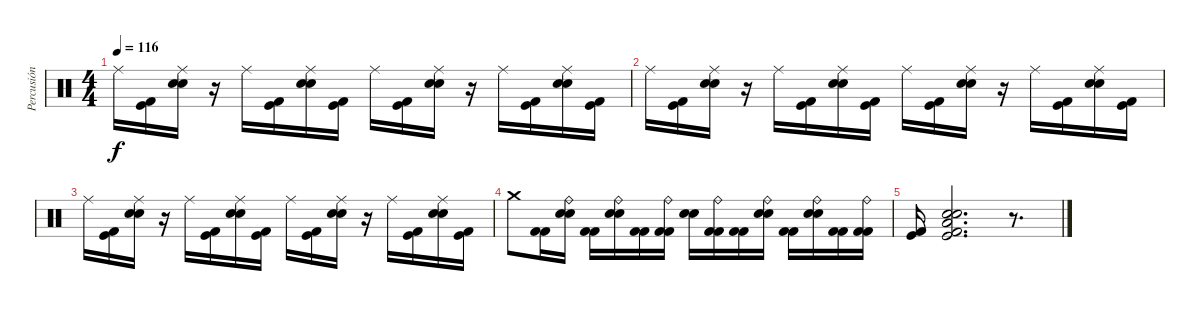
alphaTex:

\track ("Percusión" "Percusión") {instrument percussion}
\staff {score}
\articulation defaults
\ts (4 4)
\tempo 116
\clef neutral
\ks c "Ride (middle)".16{dy f}
("Kick (hit)" "Kick (hit) 2").16 ("Ride (middle)" "Electric Snare (hit)" "Snare (hit) 2").16 r.16 "Ride (middle)".16 ("Kick (hit)" "Kick (hit) 2").16 ("Ride (middle)" "Electric Snare (hit)" "Snare (hit) 2").16 ("Kick (hit)" "Kick (hit) 2").16 "Ride (middle)".16 ("Kick (hit)" "Kick (hit) 2").16 ("Ride (middle)" "Electric Snare (hit)" "Snare (hit) 2").16 r.16 "Ride (middle)".16 ("Kick (hit)" "Kick (hit) 2").16 ("Ride (middle)" "Electric Snare (hit)" "Snare (hit) 2").16 ("Kick (hit)" "Kick (hit) 2").16 |
"Ride (middle)".16 ("Kick (hit)" "Kick (hit) 2").16 ("Ride (middle)" "Electric Snare (hit)" "Snare (hit) 2").16 r.16 "Ride (middle)".16 ("Kick (hit)" "Kick (hit) 2").16 ("Ride (middle)" "Electric Snare (hit)" "Snare (hit) 2").16 ("Kick (hit)" "Kick (hit) 2").16 "Ride (middle)".16 ("Kick (hit)" "Kick (hit) 2").16 ("Ride (middle)" "Electric Snare (hit)" "Snare (hit) 2").16 r.16 "Ride (middle)".16 ("Kick (hit)" "Kick (hit) 2").16 ("Ride (middle)" "Electric Snare (hit)" "Snare (hit) 2").16 ("Kick (hit)" "Kick (hit) 2").16 |
"Ride (middle)".16 ("Kick (hit)" "Kick (hit) 2").16 ("Ride (middle)" "Electric Snare (hit)" "Snare (hit) 2").16 r.16 "Ride (middle)".16 ("Kick (hit)" "Kick (hit) 2").16 ("Ride (middle)" "Electric Snare (hit)" "Snare (hit) 2").16 ("Kick (hit)" "Kick (hit) 2").16 "Ride (middle)".16 ("Kick (hit)" "Kick (hit) 2").16 ("Ride (middle)" "Electric Snare (hit)" "Snare (hit) 2").16 r.16 "Ride (middle)".16 ("Kick (hit)" "Kick (hit) 2").16 ("Ride (middle)" "Electric Snare (hit)" "Snare (hit) 2").16 ("Kick (hit)" "Kick (hit) 2").16 |
"Crash medium (hit)".8 ("Kick (hit) 2" "Kick (hit) 2").16 ("Ride (bell)" "Snare (hit) 2" "Electric Snare (hit)").16 ("Kick (hit) 2" "Kick (hit) 2").16 ("Ride (bell)" "Snare (hit) 2" "Electric Snare (hit)").16 ("Kick (hit) 2" "Kick (hit) 2").16 ("Ride (bell)" "Kick (hit) 2" "Kick (hit) 2").16 ("Snare (hit) 2" "Electric Snare (hit)").16 ("Ride (bell)" "Kick (hit) 2" "Kick (hit) 2").16 ("Kick (hit) 2" "Kick (hit) 2").16 ("Ride (bell)" "Snare (hit) 2" "Electric Snare (hit)").16 ("Kick (hit) 2" "Kick (hit) 2").16 ("Ride (bell)" "Snare (hit) 2" "Electric Snare (hit)").16 ("Kick (hit) 2" "Kick (hit) 2").16 ("Ride (bell)" "Kick (hit) 2" "Kick (hit) 2").16 |
("Kick (hit)" "Kick (hit) 2").16 ("Low Floor Tom (hit)" "Snare (hit) 2" "Electric Snare (hit)" "Kick (hit)" "Kick (hit) 2").2{d} r.8{d}
